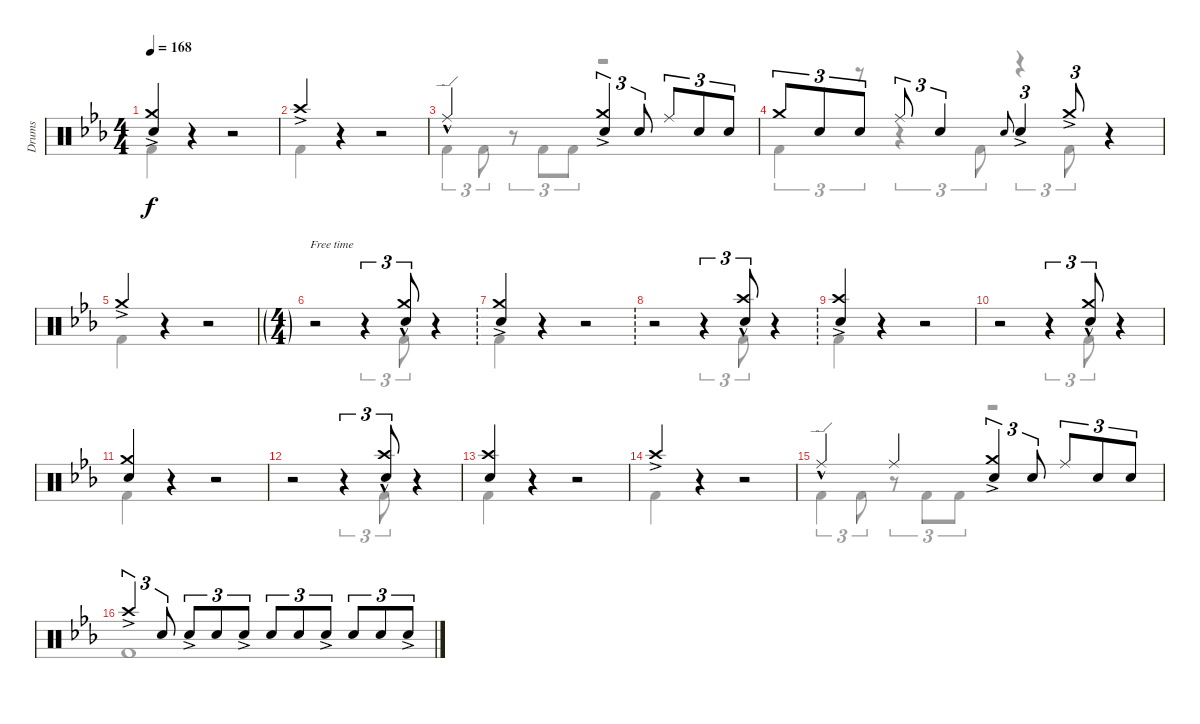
\defaultSystemsLayout 4
\bracketExtendMode groupsimilarinstruments
\otherSystemsTrackNameOrientation horizontal
\track ("Drums" "Drums") {instrument percussion}
\staff {score}
\articulation defaults
\voice
\ts (4 4)
\tempo 168
\clef neutral
\ks eb
("Crash medium (hit)"{ac acc forcenatural} "Snare (hit) 2"{acc forcenatural}).4{dy f beam Up} r.4{beam Up} r.2{beam Up} |
"Crash high (hit)"{ac acc forcenatural}.4{beam Up} r.4{beam Up} r.2{beam Up} |
"Ride (edge)"{hac acc forcenatural}.2{beam Up} ("Snare (hit) 2"{acc forcenatural} "Crash medium (hit)"{ac acc forcenatural}).4{tu (3 2) beam Up} "Snare (hit) 2"{acc forcenatural}.8{tu (3 2) beam Up} "Ride (middle)"{acc forcenatural}.8{tu (3 2) beam Up} "Snare (hit) 2"{acc forcenatural}.8{tu (3 2) beam Up} "Snare (hit) 2"{acc forcenatural}.8{tu (3 2) beam Up} |
"Crash medium (hit)"{acc forcenatural}.8{tu (3 2) beam Up} "Snare (hit) 2"{acc forcenatural}.8{tu (3 2) beam Up} "Snare (hit) 2"{acc forcenatural}.8{tu (3 2) beam Up} "Ride (middle)"{acc forcenatural}.8{tu (3 2) beam Up} "Snare (hit) 2"{acc forcenatural}.4{tu (3 2) beam Up} "Snare (hit) 2"{acc forcenatural}.8{gr onbeat beam Up} "Snare (hit) 2"{ac acc forcenatural}.4{tu (3 2) beam Up} "Crash medium (hit)"{ac acc forcenatural}.8{tu (3 2) beam Up} r.4{beam Up} |
"Crash medium (hit)"{ac acc forcenatural}.4{beam Up} r.4{beam Up} r.2{beam Up} |
\ft
r.2{beam Up} r.4{tu (3 2) beam Up} ("Crash medium (hit)"{hac acc forcenatural} "Snare (hit) 2"{acc forcenatural}).8{tu (3 2) beam Up} r.4{beam Up} |
\ft
("Crash medium (hit)"{ac acc forcenatural} "Snare (hit) 2"{acc forcenatural}).4{beam Up} r.4{beam Up} r.2{beam Up} |
\ft
r.2{beam Up} r.4{tu (3 2) beam Up} ("Snare (hit) 2"{acc forcenatural} "Crash high (hit)"{hac acc forcenatural}).8{tu (3 2) beam Up} r.4{beam Up} |
("Snare (hit) 2"{acc forcenatural} "Crash high (hit)"{ac acc forcenatural}).4{beam Up} r.4{beam Up} r.2{beam Up} |
r.2{beam Up} r.4{tu (3 2) beam Up} ("Crash medium (hit)"{hac acc forcenatural} "Snare (hit) 2"{acc forcenatural}).8{tu (3 2) beam Up} r.4{beam Up} |
("Snare (hit) 2"{acc forcenatural} "Crash medium (hit)"{acc forcenatural}).4{beam Up} r.4{beam Up} r.2{beam Up} |
r.2{beam Up} r.4{tu (3 2) beam Up} ("Snare (hit) 2"{acc forcenatural} "Crash high (hit)"{hac acc forcenatural}).8{tu (3 2) beam Up} r.4{beam Up} |
("Snare (hit) 2"{acc forcenatural} "Crash high (hit)"{acc forcenatural}).4{beam Up} r.4{beam Up} r.2{beam Up} |
"Crash high (hit)"{ac acc forcenatural}.4{beam Up} r.4{beam Up} r.2{beam Up} |
"Ride (edge)"{hac acc forcenatural}.4{beam Up} "Ride (middle)"{acc forcenatural}.4{beam Up} ("Snare (hit) 2"{acc forcenatural} "Crash medium (hit)"{ac acc forcenatural}).4{tu (3 2) beam Up} "Snare (hit) 2"{acc forcenatural}.8{tu (3 2) beam Up} "Ride (middle)"{acc forcenatural}.8{tu (3 2) beam Up} "Snare (hit) 2"{acc forcenatural}.8{tu (3 2) beam Up} "Snare (hit) 2"{acc forcenatural}.8{tu (3 2) beam Up} |
"Crash high (hit)"{ac acc forcenatural}.4{tu (3 2) beam Up} "Snare (hit) 2"{acc forcenatural}.8{tu (3 2) beam Up} "Snare (hit) 2"{ac acc forcenatural}.8{tu (3 2) beam Up} "Snare (hit) 2"{acc forcenatural}.8{tu (3 2) beam Up} "Snare (hit) 2"{ac acc forcenatural}.8{tu (3 2) beam Up} "Snare (hit) 2"{acc forcenatural}.8{tu (3 2) beam Up} "Snare (hit) 2"{acc forcenatural}.8{tu (3 2) beam Up} "Snare (hit) 2"{ac acc forcenatural}.8{tu (3 2) beam Up} "Snare (hit) 2"{acc forcenatural}.8{tu (3 2) beam Up} "Snare (hit) 2"{acc forcenatural}.8{tu (3 2) beam Up} "Snare (hit) 2"{ac acc forcenatural}.8{tu (3 2) beam Up}
\voice
\clef neutral
\ottava regular
\simile none
\ks eb "Kick (hit) 2"{acc forcenatural}.4{dy f beam Down}
r.4{beam Down} r.2{beam Down} |
"Kick (hit) 2"{acc forcenatural}.4{beam Down} r.4{beam Down} r.2{beam Down} |
"Kick (hit) 2"{acc forcenatural}.4{tu (3 2) beam Down} "Kick (hit) 2"{acc forcenatural}.8{tu (3 2) beam Down} r.8{tu (3 2) beam Down} "Kick (hit) 2"{acc forcenatural}.8{tu (3 2) beam Down} "Kick (hit) 2"{acc forcenatural}.8{tu (3 2) beam Down} r.2{beam Down} |
"Kick (hit) 2"{acc forcenatural}.4{tu (3 2) beam Down} r.8{tu (3 2) beam Down} r.4{tu (3 2) beam Down} "Kick (hit) 2"{acc forcenatural}.8{tu (3 2) beam Down} r.4{tu (3 2) beam Down} "Kick (hit) 2"{acc forcenatural}.8{tu (3 2) beam Down} r.4{beam Down} |
"Kick (hit) 2"{acc forcenatural}.4{beam Down} r.4{beam Down} r.2{beam Down} |
r.2{beam Down} r.4{tu (3 2) beam Down} "Kick (hit) 2"{acc forcenatural}.8{tu (3 2) beam Down} r.4{beam Down} |
"Kick (hit) 2"{acc forcenatural}.4{beam Down} r.4{beam Down} r.2{beam Down} |
r.2{beam Down} r.4{tu (3 2) beam Down} "Kick (hit) 2"{acc forcenatural}.8{tu (3 2) beam Down} r.4{beam Down} |
"Kick (hit) 2"{acc forcenatural}.4{beam Down} r.4{beam Down} r.2{beam Down} |
r.2{beam Down} r.4{tu (3 2) beam Down} "Kick (hit) 2"{acc forcenatural}.8{tu (3 2) beam Down} r.4{beam Down} |
"Kick (hit) 2"{acc forcenatural}.4{beam Down} r.4{beam Down} r.2{beam Down} |
r.2{beam Down} r.4{tu (3 2) beam Down} "Kick (hit) 2"{acc forcenatural}.8{tu (3 2) beam Down} r.4{beam Down} |
"Kick (hit) 2"{acc forcenatural}.4{beam Down} r.4{beam Down} r.2{beam Down} |
"Kick (hit) 2"{acc forcenatural}.4{beam Down} r.4{beam Down} r.2{beam Down} |
"Kick (hit) 2"{acc forcenatural}.4{tu (3 2) beam Down} "Kick (hit) 2"{acc forcenatural}.8{tu (3 2) beam Down} r.8{tu (3 2) beam Down} "Kick (hit) 2"{acc forcenatural}.8{tu (3 2) beam Down} "Kick (hit) 2"{acc forcenatural}.8{tu (3 2) beam Down} r.2{beam Down} |
"Kick (hit) 2"{acc forcenatural}.1{beam Down}
